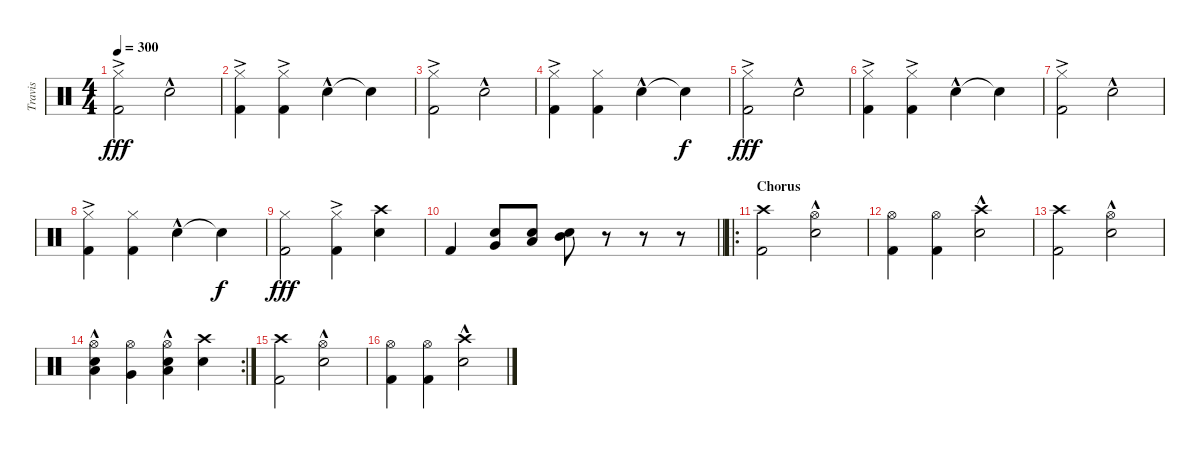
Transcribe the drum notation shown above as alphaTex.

\track ("Travis" "Travis") {instrument percussion}
\staff {score}
\articulation defaults
\ts (4 4)
\tempo 300
\clef neutral
\ks c
("Hi-Hat (closed)"{ac} "Kick (hit) 2"{ac}).2{dy fff} "Electric Snare (hit)"{hac}.2 |
("Hi-Hat (closed)"{ac} "Kick (hit) 2"{ac}).4 ("Hi-Hat (closed)"{ac} "Kick (hit) 2"{ac}).4 "Electric Snare (hit)"{hac}.4 "Snare (hit)"{t}.4 |
("Hi-Hat (closed)"{ac} "Kick (hit) 2"{ac}).2 "Electric Snare (hit)"{hac}.2 |
("Hi-Hat (closed)"{ac} "Kick (hit) 2"{ac}).4 ("Hi-Hat (closed)" "Kick (hit) 2").4 "Electric Snare (hit)"{hac}.4 "Snare (hit)"{t}.4{dy f} |
("Hi-Hat (closed)"{ac} "Kick (hit) 2"{ac}).2{dy fff} "Electric Snare (hit)"{hac}.2 |
("Hi-Hat (closed)"{ac} "Kick (hit) 2"{ac}).4 ("Hi-Hat (closed)"{ac} "Kick (hit) 2"{ac}).4 "Electric Snare (hit)"{hac}.4 "Snare (hit)"{t}.4 |
("Hi-Hat (closed)"{ac} "Kick (hit) 2"{ac}).2 "Electric Snare (hit)"{hac}.2 |
("Hi-Hat (closed)"{ac} "Kick (hit) 2"{ac}).4 ("Hi-Hat (closed)" "Kick (hit) 2").4 "Electric Snare (hit)"{hac}.4 "Snare (hit)"{t}.4{dy f} |
("Kick (hit) 2" "Hi-Hat (closed)").2{dy fff} ("Kick (hit) 2"{ac} "Hi-Hat (closed)"{ac}).4 ("Electric Snare (hit)" "Crash high (hit)").4 |
\barLineRight lightlight "Kick (hit) 2".4
("Very Low Tom (hit)" "Electric Snare (hit)").8 ("Low Tom (hit)" "Electric Snare (hit)").8 ("Mid Tom (hit)" "Electric Snare (hit)").8 r.8 r.8 r.8 |
\ro
\section ("" "Chorus")
("Crash high (hit)" "Kick (hit) 2").2 ("Hi-Hat (open)" "Electric Snare (hit)"{hac}).2 |
("Hi-Hat (open)" "Kick (hit) 2").4 ("Hi-Hat (open)" "Kick (hit) 2").4 ("Crash high (hit)" "Electric Snare (hit)"{hac}).2 |
("Crash high (hit)" "Kick (hit) 2").2 ("Hi-Hat (open)" "Electric Snare (hit)"{hac}).2 |
\rc 2
("Hi-Hat (open)" "Low Tom (hit)" "Electric Snare (hit)"{hac}).4 ("Hi-Hat (open)" "Very Low Tom (hit)").4 ("Hi-Hat (open)" "Low Floor Tom (hit)" "Electric Snare (hit)"{hac}).4 ("Crash high (hit)" "Electric Snare (hit)").4 |
("Crash high (hit)" "Kick (hit) 2").2 ("Hi-Hat (open)" "Electric Snare (hit)"{hac}).2 |
("Hi-Hat (open)" "Kick (hit) 2").4 ("Hi-Hat (open)" "Kick (hit) 2").4 ("Crash high (hit)" "Electric Snare (hit)"{hac}).2
